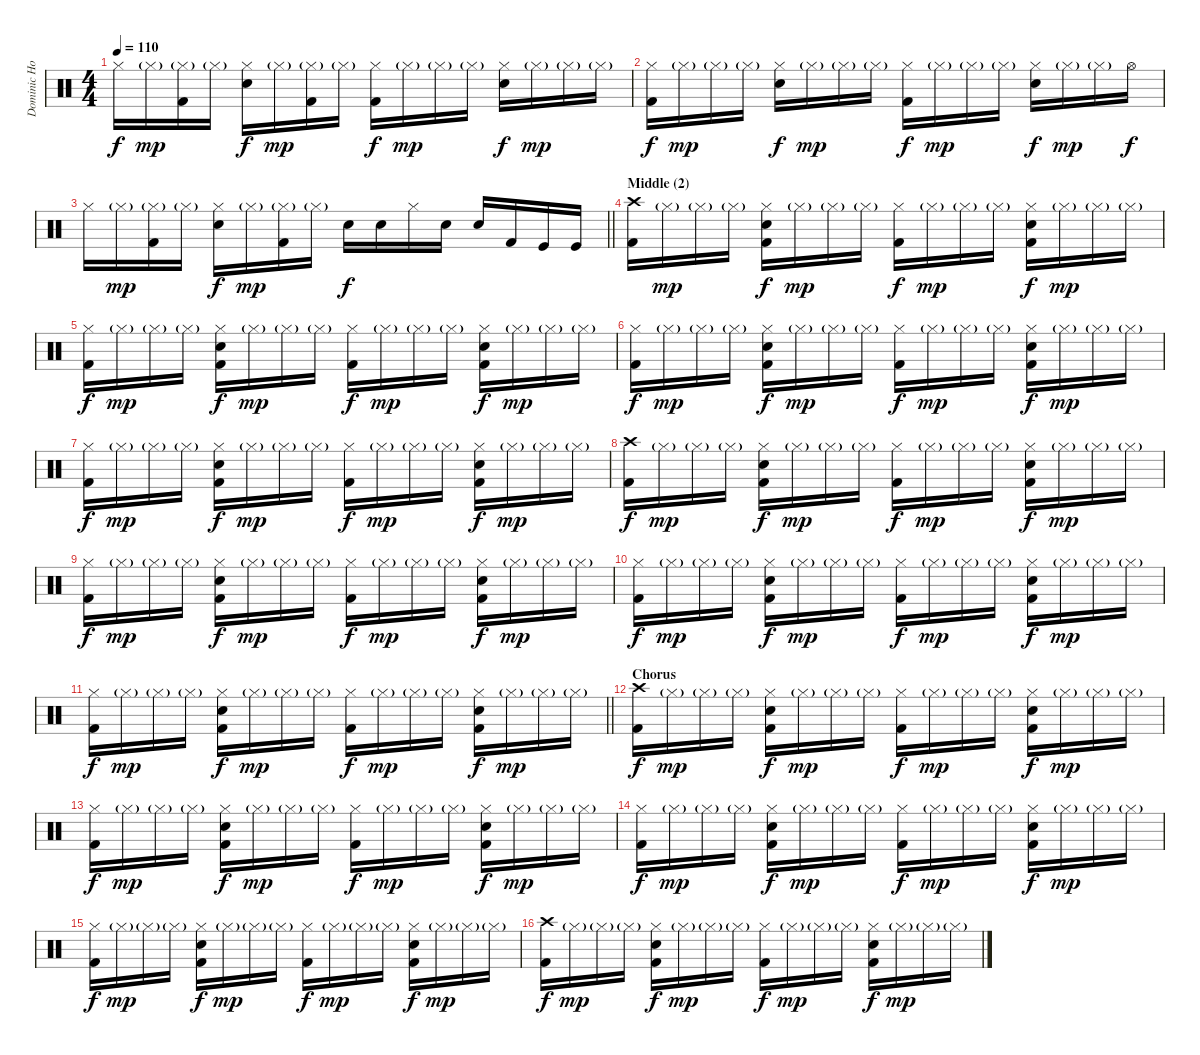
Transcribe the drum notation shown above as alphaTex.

\track ("Dominic Howard (Drums)" "Dominic Ho") {instrument percussion}
\staff {score}
\articulation defaults
\ts (4 4)
\tempo 110
\clef neutral
\ks c "Hi-Hat (closed)".16{dy f} "Hi-Hat (closed)"{g}.16{dy mp}
("Hi-Hat (closed)"{g} "Kick (hit) 2").16 "Hi-Hat (closed)"{g}.16 ("Hi-Hat (closed)" "Snare (hit) 2").16{dy f} "Hi-Hat (closed)"{g}.16{dy mp} ("Hi-Hat (closed)"{g} "Kick (hit) 2").16 "Hi-Hat (closed)"{g}.16 ("Hi-Hat (closed)" "Kick (hit) 2").16{dy f} "Hi-Hat (closed)"{g}.16{dy mp} "Hi-Hat (closed)"{g}.16 "Hi-Hat (closed)"{g}.16 ("Hi-Hat (closed)" "Snare (hit) 2").16{dy f} "Hi-Hat (closed)"{g}.16{dy mp} "Hi-Hat (closed)"{g}.16 "Hi-Hat (closed)"{g}.16 |
("Hi-Hat (closed)" "Kick (hit) 2").16{dy f} "Hi-Hat (closed)"{g}.16{dy mp} "Hi-Hat (closed)"{g}.16 "Hi-Hat (closed)"{g}.16 ("Hi-Hat (closed)" "Snare (hit) 2").16{dy f} "Hi-Hat (closed)"{g}.16{dy mp} "Hi-Hat (closed)"{g}.16 "Hi-Hat (closed)"{g}.16 ("Hi-Hat (closed)" "Kick (hit) 2").16{dy f} "Hi-Hat (closed)"{g}.16{dy mp} "Hi-Hat (closed)"{g}.16 "Hi-Hat (closed)"{g}.16 ("Hi-Hat (closed)" "Snare (hit) 2").16{dy f} "Hi-Hat (closed)"{g}.16{dy mp} "Hi-Hat (closed)"{g}.16 "Hi-Hat (open)".16{dy f} |
\barLineRight lightlight "Hi-Hat (closed)".16 "Hi-Hat (closed)"{g}.16{dy mp}
("Hi-Hat (closed)"{g} "Kick (hit) 2").16 "Hi-Hat (closed)"{g}.16 ("Hi-Hat (closed)" "Snare (hit) 2").16{dy f} "Hi-Hat (closed)"{g}.16{dy mp} ("Hi-Hat (closed)"{g} "Kick (hit) 2").16 "Hi-Hat (closed)"{g}.16 "Snare (hit) 2".16{dy f} "Snare (hit) 2".16 "Hi-Hat (closed)".16 "Snare (hit) 2".16 "Snare (hit) 2".16 "Kick (hit) 2".16 "Kick (hit)".16 "Kick (hit)".16 |
\section ("" "Middle (2)")
("Crash high (hit)" "Kick (hit) 2").16 "Hi-Hat (closed)"{g}.16{dy mp} "Hi-Hat (closed)"{g}.16 "Hi-Hat (closed)"{g}.16 ("Hi-Hat (closed)" "Snare (hit) 2" "Kick (hit) 2").16{dy f} "Hi-Hat (closed)"{g}.16{dy mp} "Hi-Hat (closed)"{g}.16 "Hi-Hat (closed)"{g}.16 ("Hi-Hat (closed)" "Kick (hit) 2").16{dy f} "Hi-Hat (closed)"{g}.16{dy mp} "Hi-Hat (closed)"{g}.16 "Hi-Hat (closed)"{g}.16 ("Hi-Hat (closed)" "Snare (hit) 2" "Kick (hit) 2").16{dy f} "Hi-Hat (closed)"{g}.16{dy mp} "Hi-Hat (closed)"{g}.16 "Hi-Hat (closed)"{g}.16 |
("Hi-Hat (closed)" "Kick (hit) 2").16{dy f} "Hi-Hat (closed)"{g}.16{dy mp} "Hi-Hat (closed)"{g}.16 "Hi-Hat (closed)"{g}.16 ("Hi-Hat (closed)" "Snare (hit) 2" "Kick (hit) 2").16{dy f} "Hi-Hat (closed)"{g}.16{dy mp} "Hi-Hat (closed)"{g}.16 "Hi-Hat (closed)"{g}.16 ("Hi-Hat (closed)" "Kick (hit) 2").16{dy f} "Hi-Hat (closed)"{g}.16{dy mp} "Hi-Hat (closed)"{g}.16 "Hi-Hat (closed)"{g}.16 ("Hi-Hat (closed)" "Snare (hit) 2" "Kick (hit) 2").16{dy f} "Hi-Hat (closed)"{g}.16{dy mp} "Hi-Hat (closed)"{g}.16 "Hi-Hat (closed)"{g}.16 |
("Hi-Hat (closed)" "Kick (hit) 2").16{dy f} "Hi-Hat (closed)"{g}.16{dy mp} "Hi-Hat (closed)"{g}.16 "Hi-Hat (closed)"{g}.16 ("Hi-Hat (closed)" "Snare (hit) 2" "Kick (hit) 2").16{dy f} "Hi-Hat (closed)"{g}.16{dy mp} "Hi-Hat (closed)"{g}.16 "Hi-Hat (closed)"{g}.16 ("Hi-Hat (closed)" "Kick (hit) 2").16{dy f} "Hi-Hat (closed)"{g}.16{dy mp} "Hi-Hat (closed)"{g}.16 "Hi-Hat (closed)"{g}.16 ("Hi-Hat (closed)" "Snare (hit) 2" "Kick (hit) 2").16{dy f} "Hi-Hat (closed)"{g}.16{dy mp} "Hi-Hat (closed)"{g}.16 "Hi-Hat (closed)"{g}.16 |
("Hi-Hat (closed)" "Kick (hit) 2").16{dy f} "Hi-Hat (closed)"{g}.16{dy mp} "Hi-Hat (closed)"{g}.16 "Hi-Hat (closed)"{g}.16 ("Hi-Hat (closed)" "Snare (hit) 2" "Kick (hit) 2").16{dy f} "Hi-Hat (closed)"{g}.16{dy mp} "Hi-Hat (closed)"{g}.16 "Hi-Hat (closed)"{g}.16 ("Hi-Hat (closed)" "Kick (hit) 2").16{dy f} "Hi-Hat (closed)"{g}.16{dy mp} "Hi-Hat (closed)"{g}.16 "Hi-Hat (closed)"{g}.16 ("Hi-Hat (closed)" "Snare (hit) 2" "Kick (hit) 2").16{dy f} "Hi-Hat (closed)"{g}.16{dy mp} "Hi-Hat (closed)"{g}.16 "Hi-Hat (closed)"{g}.16 |
("Crash high (hit)" "Kick (hit) 2").16{dy f} "Hi-Hat (closed)"{g}.16{dy mp} "Hi-Hat (closed)"{g}.16 "Hi-Hat (closed)"{g}.16 ("Hi-Hat (closed)" "Snare (hit) 2" "Kick (hit) 2").16{dy f} "Hi-Hat (closed)"{g}.16{dy mp} "Hi-Hat (closed)"{g}.16 "Hi-Hat (closed)"{g}.16 ("Hi-Hat (closed)" "Kick (hit) 2").16{dy f} "Hi-Hat (closed)"{g}.16{dy mp} "Hi-Hat (closed)"{g}.16 "Hi-Hat (closed)"{g}.16 ("Hi-Hat (closed)" "Snare (hit) 2" "Kick (hit) 2").16{dy f} "Hi-Hat (closed)"{g}.16{dy mp} "Hi-Hat (closed)"{g}.16 "Hi-Hat (closed)"{g}.16 |
("Hi-Hat (closed)" "Kick (hit) 2").16{dy f} "Hi-Hat (closed)"{g}.16{dy mp} "Hi-Hat (closed)"{g}.16 "Hi-Hat (closed)"{g}.16 ("Hi-Hat (closed)" "Snare (hit) 2" "Kick (hit) 2").16{dy f} "Hi-Hat (closed)"{g}.16{dy mp} "Hi-Hat (closed)"{g}.16 "Hi-Hat (closed)"{g}.16 ("Hi-Hat (closed)" "Kick (hit) 2").16{dy f} "Hi-Hat (closed)"{g}.16{dy mp} "Hi-Hat (closed)"{g}.16 "Hi-Hat (closed)"{g}.16 ("Hi-Hat (closed)" "Snare (hit) 2" "Kick (hit) 2").16{dy f} "Hi-Hat (closed)"{g}.16{dy mp} "Hi-Hat (closed)"{g}.16 "Hi-Hat (closed)"{g}.16 |
("Hi-Hat (closed)" "Kick (hit) 2").16{dy f} "Hi-Hat (closed)"{g}.16{dy mp} "Hi-Hat (closed)"{g}.16 "Hi-Hat (closed)"{g}.16 ("Hi-Hat (closed)" "Snare (hit) 2" "Kick (hit) 2").16{dy f} "Hi-Hat (closed)"{g}.16{dy mp} "Hi-Hat (closed)"{g}.16 "Hi-Hat (closed)"{g}.16 ("Hi-Hat (closed)" "Kick (hit) 2").16{dy f} "Hi-Hat (closed)"{g}.16{dy mp} "Hi-Hat (closed)"{g}.16 "Hi-Hat (closed)"{g}.16 ("Hi-Hat (closed)" "Snare (hit) 2" "Kick (hit) 2").16{dy f} "Hi-Hat (closed)"{g}.16{dy mp} "Hi-Hat (closed)"{g}.16 "Hi-Hat (closed)"{g}.16 |
\barLineRight lightlight
("Hi-Hat (closed)" "Kick (hit) 2").16{dy f} "Hi-Hat (closed)"{g}.16{dy mp} "Hi-Hat (closed)"{g}.16 "Hi-Hat (closed)"{g}.16 ("Hi-Hat (closed)" "Snare (hit) 2" "Kick (hit) 2").16{dy f} "Hi-Hat (closed)"{g}.16{dy mp} "Hi-Hat (closed)"{g}.16 "Hi-Hat (closed)"{g}.16 ("Hi-Hat (closed)" "Kick (hit) 2").16{dy f} "Hi-Hat (closed)"{g}.16{dy mp} "Hi-Hat (closed)"{g}.16 "Hi-Hat (closed)"{g}.16 ("Hi-Hat (closed)" "Snare (hit) 2" "Kick (hit) 2").16{dy f} "Hi-Hat (closed)"{g}.16{dy mp} "Hi-Hat (closed)"{g}.16 "Hi-Hat (closed)"{g}.16 |
\section ("" "Chorus")
("Crash high (hit)" "Kick (hit) 2").16{dy f} "Hi-Hat (closed)"{g}.16{dy mp} "Hi-Hat (closed)"{g}.16 "Hi-Hat (closed)"{g}.16 ("Hi-Hat (closed)" "Snare (hit) 2" "Kick (hit) 2").16{dy f} "Hi-Hat (closed)"{g}.16{dy mp} "Hi-Hat (closed)"{g}.16 "Hi-Hat (closed)"{g}.16 ("Hi-Hat (closed)" "Kick (hit) 2").16{dy f} "Hi-Hat (closed)"{g}.16{dy mp} "Hi-Hat (closed)"{g}.16 "Hi-Hat (closed)"{g}.16 ("Hi-Hat (closed)" "Snare (hit) 2" "Kick (hit) 2").16{dy f} "Hi-Hat (closed)"{g}.16{dy mp} "Hi-Hat (closed)"{g}.16 "Hi-Hat (closed)"{g}.16 |
("Hi-Hat (closed)" "Kick (hit) 2").16{dy f} "Hi-Hat (closed)"{g}.16{dy mp} "Hi-Hat (closed)"{g}.16 "Hi-Hat (closed)"{g}.16 ("Hi-Hat (closed)" "Snare (hit) 2" "Kick (hit) 2").16{dy f} "Hi-Hat (closed)"{g}.16{dy mp} "Hi-Hat (closed)"{g}.16 "Hi-Hat (closed)"{g}.16 ("Hi-Hat (closed)" "Kick (hit) 2").16{dy f} "Hi-Hat (closed)"{g}.16{dy mp} "Hi-Hat (closed)"{g}.16 "Hi-Hat (closed)"{g}.16 ("Hi-Hat (closed)" "Snare (hit) 2" "Kick (hit) 2").16{dy f} "Hi-Hat (closed)"{g}.16{dy mp} "Hi-Hat (closed)"{g}.16 "Hi-Hat (closed)"{g}.16 |
("Hi-Hat (closed)" "Kick (hit) 2").16{dy f} "Hi-Hat (closed)"{g}.16{dy mp} "Hi-Hat (closed)"{g}.16 "Hi-Hat (closed)"{g}.16 ("Hi-Hat (closed)" "Snare (hit) 2" "Kick (hit) 2").16{dy f} "Hi-Hat (closed)"{g}.16{dy mp} "Hi-Hat (closed)"{g}.16 "Hi-Hat (closed)"{g}.16 ("Hi-Hat (closed)" "Kick (hit) 2").16{dy f} "Hi-Hat (closed)"{g}.16{dy mp} "Hi-Hat (closed)"{g}.16 "Hi-Hat (closed)"{g}.16 ("Hi-Hat (closed)" "Snare (hit) 2" "Kick (hit) 2").16{dy f} "Hi-Hat (closed)"{g}.16{dy mp} "Hi-Hat (closed)"{g}.16 "Hi-Hat (closed)"{g}.16 |
("Hi-Hat (closed)" "Kick (hit) 2").16{dy f} "Hi-Hat (closed)"{g}.16{dy mp} "Hi-Hat (closed)"{g}.16 "Hi-Hat (closed)"{g}.16 ("Hi-Hat (closed)" "Snare (hit) 2" "Kick (hit) 2").16{dy f} "Hi-Hat (closed)"{g}.16{dy mp} "Hi-Hat (closed)"{g}.16 "Hi-Hat (closed)"{g}.16 ("Hi-Hat (closed)" "Kick (hit) 2").16{dy f} "Hi-Hat (closed)"{g}.16{dy mp} "Hi-Hat (closed)"{g}.16 "Hi-Hat (closed)"{g}.16 ("Hi-Hat (closed)" "Snare (hit) 2" "Kick (hit) 2").16{dy f} "Hi-Hat (closed)"{g}.16{dy mp} "Hi-Hat (closed)"{g}.16 "Hi-Hat (closed)"{g}.16 |
("Crash high (hit)" "Kick (hit) 2").16{dy f} "Hi-Hat (closed)"{g}.16{dy mp} "Hi-Hat (closed)"{g}.16 "Hi-Hat (closed)"{g}.16 ("Hi-Hat (closed)" "Snare (hit) 2" "Kick (hit) 2").16{dy f} "Hi-Hat (closed)"{g}.16{dy mp} "Hi-Hat (closed)"{g}.16 "Hi-Hat (closed)"{g}.16 ("Hi-Hat (closed)" "Kick (hit) 2").16{dy f} "Hi-Hat (closed)"{g}.16{dy mp} "Hi-Hat (closed)"{g}.16 "Hi-Hat (closed)"{g}.16 ("Hi-Hat (closed)" "Snare (hit) 2" "Kick (hit) 2").16{dy f} "Hi-Hat (closed)"{g}.16{dy mp} "Hi-Hat (closed)"{g}.16 "Hi-Hat (closed)"{g}.16
